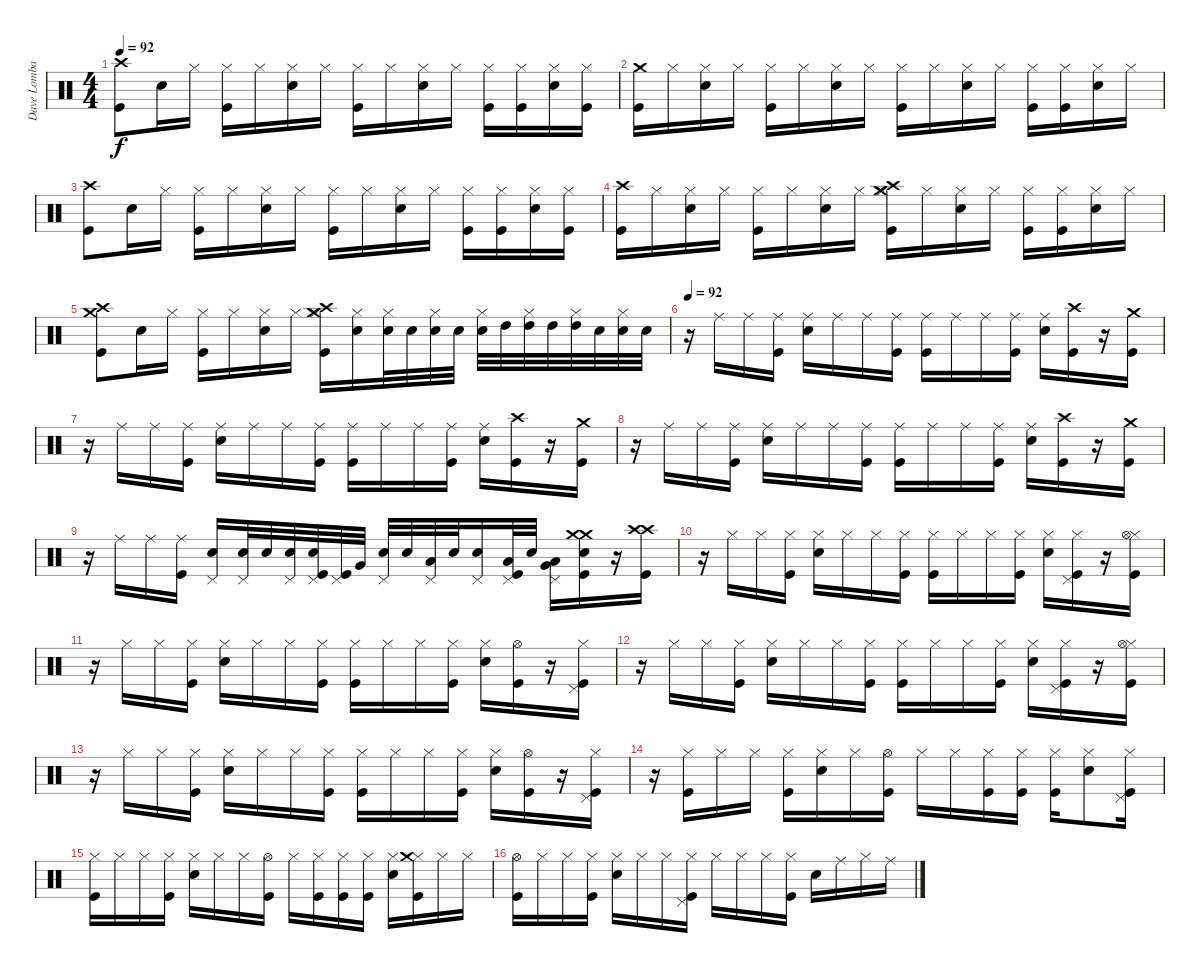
\track ("Dave Lombardo" "Dave Lomba") {instrument percussion}
\staff {score}
\articulation defaults
\ts (4 4)
\tempo 92
\clef neutral
\ks c
("Crash high (hit)" "Kick (hit)").8{dy f} "Snare (hit) 2".16 "Hi-Hat (closed)".16 ("Hi-Hat (closed)" "Kick (hit)").16 "Hi-Hat (closed)".16 ("Hi-Hat (closed)" "Snare (hit) 2").16 "Hi-Hat (closed)".16 ("Hi-Hat (closed)" "Kick (hit)").16 "Hi-Hat (closed)".16 ("Hi-Hat (closed)" "Snare (hit) 2").16 "Hi-Hat (closed)".16 ("Hi-Hat (closed)" "Kick (hit)").16 ("Hi-Hat (closed)" "Kick (hit)").16 ("Hi-Hat (closed)" "Snare (hit) 2").16 ("Hi-Hat (closed)" "Kick (hit)").16 |
("Kick (hit)" "Crash medium (hit)").16 "Hi-Hat (closed)".16 ("Hi-Hat (closed)" "Snare (hit) 2").16 "Hi-Hat (closed)".16 ("Hi-Hat (closed)" "Kick (hit)").16 "Hi-Hat (closed)".16 ("Hi-Hat (closed)" "Snare (hit) 2").16 "Hi-Hat (closed)".16 ("Hi-Hat (closed)" "Kick (hit)").16 "Hi-Hat (closed)".16 ("Hi-Hat (closed)" "Snare (hit) 2").16 "Hi-Hat (closed)".16 ("Hi-Hat (closed)" "Kick (hit)").16 ("Hi-Hat (closed)" "Kick (hit)").16 ("Hi-Hat (closed)" "Snare (hit) 2").16 "Hi-Hat (closed)".16 |
("Crash high (hit)" "Kick (hit)").8 "Snare (hit) 2".16 "Hi-Hat (closed)".16 ("Hi-Hat (closed)" "Kick (hit)").16 "Hi-Hat (closed)".16 ("Hi-Hat (closed)" "Snare (hit) 2").16 "Hi-Hat (closed)".16 ("Hi-Hat (closed)" "Kick (hit)").16 "Hi-Hat (closed)".16 ("Hi-Hat (closed)" "Snare (hit) 2").16 "Hi-Hat (closed)".16 ("Hi-Hat (closed)" "Kick (hit)").16 ("Hi-Hat (closed)" "Kick (hit)").16 ("Hi-Hat (closed)" "Snare (hit) 2").16 ("Hi-Hat (closed)" "Kick (hit)").16 |
("Crash high (hit)" "Kick (hit)").16 "Hi-Hat (closed)".16 ("Hi-Hat (closed)" "Snare (hit) 2").16 "Hi-Hat (closed)".16 ("Hi-Hat (closed)" "Kick (hit)").16 "Hi-Hat (closed)".16 ("Hi-Hat (closed)" "Snare (hit) 2").16 "Hi-Hat (closed)".16 ("Crash high (hit)" "Hi-Hat (closed)" "Kick (hit)" "Crash medium (hit)").16 "Hi-Hat (closed)".16 ("Hi-Hat (closed)" "Snare (hit) 2").16 "Hi-Hat (closed)".16 ("Hi-Hat (closed)" "Kick (hit)").16 ("Hi-Hat (closed)" "Kick (hit)").16 ("Hi-Hat (closed)" "Snare (hit) 2").16 "Hi-Hat (closed)".16 |
("Crash high (hit)" "Kick (hit)" "Crash medium (hit)").8 "Snare (hit) 2".16 "Hi-Hat (closed)".16 ("Hi-Hat (closed)" "Kick (hit)").16 "Hi-Hat (closed)".16 ("Hi-Hat (closed)" "Snare (hit) 2").16 "Hi-Hat (closed)".16 ("Crash high (hit)" "Hi-Hat (closed)" "Kick (hit)" "Crash medium (hit)").16 ("Hi-Hat (closed)" "Snare (hit) 2").16 ("Hi-Hat (closed)" "Snare (hit) 2").32 "Snare (hit) 2".32 ("Hi-Hat (closed)" "Snare (hit) 2").32 "Snare (hit) 2".32 ("Hi-Hat (closed)" "Snare (hit) 2").32 "High Tom (hit)".32 ("Hi-Hat (closed)" "High Tom (hit)").32 "High Tom (hit)".32 ("Hi-Hat (closed)" "High Tom (hit)").32 "Snare (hit) 2".32 ("Hi-Hat (closed)" "Snare (hit) 2").32 "Snare (hit) 2".32 |
\tempo 92
r.16 "Ride (middle)".16 "Ride (middle)".16 ("Ride (middle)" "Kick (hit)").16 ("Ride (middle)" "Snare (hit) 2").16 "Ride (middle)".16 "Ride (middle)".16 ("Ride (middle)" "Kick (hit)").16 ("Ride (middle)" "Kick (hit)").16 "Ride (middle)".16 "Ride (middle)".16 ("Ride (middle)" "Kick (hit)").16 ("Ride (middle)" "Snare (hit) 2").16 ("Crash high (hit)" "Kick (hit)").16 r.16 ("Kick (hit)" "Crash medium (hit)").16 |
r.16 "Ride (middle)".16 "Ride (middle)".16 ("Ride (middle)" "Kick (hit)").16 ("Ride (middle)" "Snare (hit) 2").16 "Ride (middle)".16 "Ride (middle)".16 ("Ride (middle)" "Kick (hit)").16 ("Ride (middle)" "Kick (hit)").16 "Ride (middle)".16 "Ride (middle)".16 ("Ride (middle)" "Kick (hit)").16 ("Ride (middle)" "Snare (hit) 2").16 ("Crash high (hit)" "Kick (hit)").16 r.16 ("Kick (hit)" "Crash medium (hit)").16 |
r.16 "Ride (middle)".16 "Ride (middle)".16 ("Ride (middle)" "Kick (hit)").16 ("Ride (middle)" "Snare (hit) 2").16 "Ride (middle)".16 "Ride (middle)".16 ("Ride (middle)" "Kick (hit)").16 ("Ride (middle)" "Kick (hit)").16 "Ride (middle)".16 "Ride (middle)".16 ("Ride (middle)" "Kick (hit)").16 ("Ride (middle)" "Snare (hit) 2").16 ("Crash high (hit)" "Kick (hit)").16 r.16 ("Kick (hit)" "Crash medium (hit)").16 |
r.16 "Ride (middle)".16 "Ride (middle)".16 ("Ride (middle)" "Kick (hit)").16 ("Pedal Hi-Hat (hit)" "Snare (hit) 2").16 ("Pedal Hi-Hat (hit)" "Snare (hit) 2").32 "Snare (hit) 2".32 ("Pedal Hi-Hat (hit)" "Snare (hit) 2").32 ("Pedal Hi-Hat (hit)" "Kick (hit)" "Snare (hit) 2").32 ("Pedal Hi-Hat (hit)" "Kick (hit)").32 "Very Low Tom (hit)".32 ("Pedal Hi-Hat (hit)" "Snare (hit) 2").32 "Snare (hit) 2".32 ("Pedal Hi-Hat (hit)" "Low Tom (hit)").32 "Snare (hit) 2".32 ("Pedal Hi-Hat (hit)" "Snare (hit) 2").16 ("Pedal Hi-Hat (hit)" "Kick (hit)" "Low Tom (hit)").32 "Snare (hit) 2".32 ("Pedal Hi-Hat (hit)" "Very Low Tom (hit)" "Low Tom (hit)").16 ("Crash medium (hit)" "Kick (hit)" "Snare (hit) 2" "Crash medium (hit)").16 r.16 ("Crash high (hit)" "Kick (hit)" "Crash high (hit)").16 |
r.16 "Hi-Hat (closed)".16 "Hi-Hat (closed)".16 ("Hi-Hat (closed)" "Kick (hit)").16 ("Hi-Hat (closed)" "Snare (hit) 2").16 "Hi-Hat (closed)".16 "Hi-Hat (closed)".16 ("Hi-Hat (closed)" "Kick (hit)").16 ("Hi-Hat (closed)" "Kick (hit)").16 "Hi-Hat (closed)".16 "Hi-Hat (closed)".16 ("Hi-Hat (closed)" "Kick (hit)").16 ("Hi-Hat (closed)" "Snare (hit) 2").16 ("Kick (hit)" "Hi-Hat (closed)" "Pedal Hi-Hat (hit)").16 r.16 ("Hi-Hat (closed)" "Hi-Hat (open)" "Kick (hit)").16 |
r.16 "Hi-Hat (closed)".16 "Hi-Hat (closed)".16 ("Hi-Hat (closed)" "Kick (hit)").16 ("Hi-Hat (closed)" "Snare (hit) 2").16 "Hi-Hat (closed)".16 "Hi-Hat (closed)".16 ("Hi-Hat (closed)" "Kick (hit)").16 ("Hi-Hat (closed)" "Kick (hit)").16 "Hi-Hat (closed)".16 "Hi-Hat (closed)".16 ("Hi-Hat (closed)" "Kick (hit)").16 ("Hi-Hat (closed)" "Snare (hit) 2").16 ("Hi-Hat (open)" "Kick (hit)").16 r.16 ("Kick (hit)" "Hi-Hat (closed)" "Pedal Hi-Hat (hit)").16 |
r.16 "Hi-Hat (closed)".16 "Hi-Hat (closed)".16 ("Hi-Hat (closed)" "Kick (hit)").16 ("Hi-Hat (closed)" "Snare (hit) 2").16 "Hi-Hat (closed)".16 "Hi-Hat (closed)".16 ("Hi-Hat (closed)" "Kick (hit)").16 ("Hi-Hat (closed)" "Kick (hit)").16 "Hi-Hat (closed)".16 "Hi-Hat (closed)".16 ("Hi-Hat (closed)" "Kick (hit)").16 ("Hi-Hat (closed)" "Snare (hit) 2").16 ("Kick (hit)" "Hi-Hat (closed)" "Pedal Hi-Hat (hit)").16 r.16 ("Hi-Hat (closed)" "Hi-Hat (open)" "Kick (hit)").16 |
r.16 "Hi-Hat (closed)".16 "Hi-Hat (closed)".16 ("Hi-Hat (closed)" "Kick (hit)").16 ("Hi-Hat (closed)" "Snare (hit) 2").16 "Hi-Hat (closed)".16 "Hi-Hat (closed)".16 ("Hi-Hat (closed)" "Kick (hit)").16 ("Hi-Hat (closed)" "Kick (hit)").16 "Hi-Hat (closed)".16 "Hi-Hat (closed)".16 ("Hi-Hat (closed)" "Kick (hit)").16 ("Hi-Hat (closed)" "Snare (hit) 2").16 ("Hi-Hat (open)" "Kick (hit)").16 r.16 ("Kick (hit)" "Hi-Hat (closed)" "Pedal Hi-Hat (hit)").16 |
r.16 ("Hi-Hat (closed)" "Kick (hit)").16 "Hi-Hat (closed)".16 "Hi-Hat (closed)".16 ("Hi-Hat (closed)" "Kick (hit)").16 ("Hi-Hat (closed)" "Snare (hit) 2").16 "Hi-Hat (closed)".16 ("Hi-Hat (open)" "Kick (hit)").16 "Hi-Hat (closed)".16 "Hi-Hat (closed)".16 ("Hi-Hat (closed)" "Kick (hit)").16 ("Hi-Hat (closed)" "Kick (hit)").16 ("Hi-Hat (closed)" "Kick (hit)").16 ("Hi-Hat (closed)" "Snare (hit) 2").8 ("Hi-Hat (closed)" "Kick (hit)" "Pedal Hi-Hat (hit)").16 |
("Hi-Hat (closed)" "Kick (hit)").16 "Hi-Hat (closed)".16 "Hi-Hat (closed)".16 ("Hi-Hat (closed)" "Kick (hit)").16 ("Hi-Hat (closed)" "Snare (hit) 2").16 "Hi-Hat (closed)".16 "Hi-Hat (closed)".16 ("Hi-Hat (open)" "Kick (hit)").16 "Hi-Hat (closed)".16 ("Hi-Hat (closed)" "Kick (hit)").16 ("Hi-Hat (closed)" "Kick (hit)").16 ("Hi-Hat (closed)" "Kick (hit)").16 ("Hi-Hat (closed)" "Snare (hit) 2").16 ("Hi-Hat (closed)" "Kick (hit)" "Crash medium (hit)").16 "Hi-Hat (closed)".16 "Hi-Hat (closed)".16 |
("Hi-Hat (open)" "Kick (hit)").16 "Hi-Hat (closed)".16 "Hi-Hat (closed)".16 ("Hi-Hat (closed)" "Kick (hit)").16 ("Hi-Hat (closed)" "Snare (hit) 2").16 "Hi-Hat (closed)".16 "Hi-Hat (closed)".16 ("Hi-Hat (closed)" "Kick (hit)" "Pedal Hi-Hat (hit)").16 "Hi-Hat (closed)".16 "Hi-Hat (closed)".16 "Hi-Hat (closed)".16 ("Hi-Hat (closed)" "Kick (hit)").16 "Snare (hit) 2".16 "Ride (middle)".16 "Hi-Hat (closed)".16 "Ride (middle)".16
